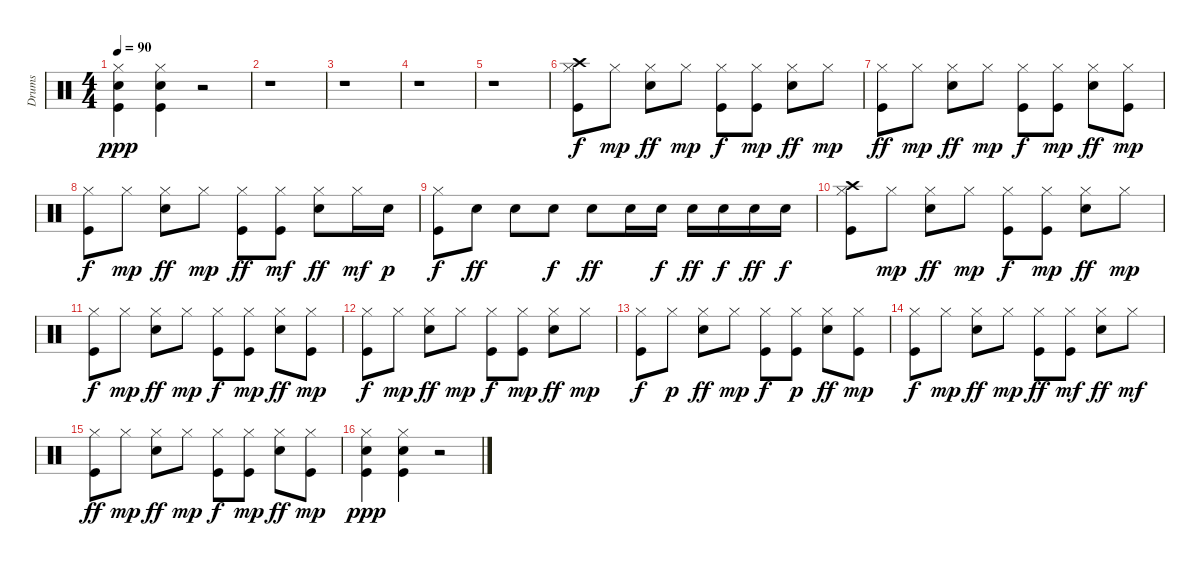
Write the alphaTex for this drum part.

\track ("Drums" "Drums") {instrument percussion}
\staff {score}
\articulation defaults
\ts (4 4)
\tempo 90
\clef neutral
\ks c
("Kick (hit)" "Snare (hit) 2" "Hi-Hat (closed)").4{dy ppp} ("Kick (hit)" "Snare (hit) 2" "Hi-Hat (closed)").4 r.2 |
r.1 |
r.1 |
r.1 |
r.1 |
("Kick (hit)" "Hi-Hat (closed)" "Crash high (hit)").8{dy f} "Hi-Hat (closed)".8{dy mp} ("Snare (hit) 2" "Hi-Hat (closed)").8{dy ff} "Hi-Hat (closed)".8{dy mp} ("Kick (hit)" "Hi-Hat (closed)").8{dy f} ("Kick (hit)" "Hi-Hat (closed)").8{dy mp} ("Snare (hit) 2" "Hi-Hat (closed)").8{dy ff} "Hi-Hat (closed)".8{dy mp} |
("Kick (hit)" "Hi-Hat (closed)").8{dy ff} "Hi-Hat (closed)".8{dy mp} ("Snare (hit) 2" "Hi-Hat (closed)").8{dy ff} "Hi-Hat (closed)".8{dy mp} ("Kick (hit)" "Hi-Hat (closed)").8{dy f} ("Kick (hit)" "Hi-Hat (closed)").8{dy mp} ("Snare (hit) 2" "Hi-Hat (closed)").8{dy ff} ("Kick (hit)" "Hi-Hat (closed)").8{dy mp} |
("Kick (hit)" "Hi-Hat (closed)").8{dy f} "Hi-Hat (closed)".8{dy mp} ("Snare (hit) 2" "Hi-Hat (closed)").8{dy ff} "Hi-Hat (closed)".8{dy mp} ("Kick (hit)" "Hi-Hat (closed)").8{dy ff} ("Kick (hit)" "Hi-Hat (closed)").8{dy mf} ("Snare (hit) 2" "Hi-Hat (closed)").8{dy ff} "Hi-Hat (closed)".16{dy mf} "Snare (hit) 2".16{dy p} |
("Kick (hit)" "Hi-Hat (closed)").8{dy f} "Snare (hit) 2".8{dy ff} "Snare (hit) 2".8 "Snare (hit) 2".8{dy f} "Snare (hit) 2".8{dy ff} "Snare (hit) 2".16 "Snare (hit) 2".16{dy f} "Snare (hit) 2".16{dy ff} "Snare (hit) 2".16{dy f} "Snare (hit) 2".16{dy ff} "Snare (hit) 2".16{dy f} |
("Kick (hit)" "Hi-Hat (closed)" "Crash high (hit)").8 "Hi-Hat (closed)".8{dy mp} ("Snare (hit) 2" "Hi-Hat (closed)").8{dy ff} "Hi-Hat (closed)".8{dy mp} ("Kick (hit)" "Hi-Hat (closed)").8{dy f} ("Kick (hit)" "Hi-Hat (closed)").8{dy mp} ("Snare (hit) 2" "Hi-Hat (closed)").8{dy ff} "Hi-Hat (closed)".8{dy mp} |
("Kick (hit)" "Hi-Hat (closed)").8{dy f} "Hi-Hat (closed)".8{dy mp} ("Snare (hit) 2" "Hi-Hat (closed)").8{dy ff} "Hi-Hat (closed)".8{dy mp} ("Kick (hit)" "Hi-Hat (closed)").8{dy f} ("Kick (hit)" "Hi-Hat (closed)").8{dy mp} ("Snare (hit) 2" "Hi-Hat (closed)").8{dy ff} ("Kick (hit)" "Hi-Hat (closed)").8{dy mp} |
("Kick (hit)" "Hi-Hat (closed)").8{dy f} "Hi-Hat (closed)".8{dy mp} ("Snare (hit) 2" "Hi-Hat (closed)").8{dy ff} "Hi-Hat (closed)".8{dy mp} ("Kick (hit)" "Hi-Hat (closed)").8{dy f} ("Kick (hit)" "Hi-Hat (closed)").8{dy mp} ("Snare (hit) 2" "Hi-Hat (closed)").8{dy ff} "Hi-Hat (closed)".8{dy mp} |
("Kick (hit)" "Hi-Hat (closed)").8{dy f} "Hi-Hat (closed)".8{dy p} ("Snare (hit) 2" "Hi-Hat (closed)").8{dy ff} "Hi-Hat (closed)".8{dy mp} ("Kick (hit)" "Hi-Hat (closed)").8{dy f} ("Kick (hit)" "Hi-Hat (closed)").8{dy p} ("Snare (hit) 2" "Hi-Hat (closed)").8{dy ff} ("Kick (hit)" "Hi-Hat (closed)").8{dy mp} |
("Kick (hit)" "Hi-Hat (closed)").8{dy f} "Hi-Hat (closed)".8{dy mp} ("Snare (hit) 2" "Hi-Hat (closed)").8{dy ff} "Hi-Hat (closed)".8{dy mp} ("Kick (hit)" "Hi-Hat (closed)").8{dy ff} ("Kick (hit)" "Hi-Hat (closed)").8{dy mf} ("Snare (hit) 2" "Hi-Hat (closed)").8{dy ff} "Hi-Hat (closed)".8{dy mf} |
("Kick (hit)" "Hi-Hat (closed)").8{dy ff} "Hi-Hat (closed)".8{dy mp} ("Snare (hit) 2" "Hi-Hat (closed)").8{dy ff} "Hi-Hat (closed)".8{dy mp} ("Kick (hit)" "Hi-Hat (closed)").8{dy f} ("Kick (hit)" "Hi-Hat (closed)").8{dy mp} ("Snare (hit) 2" "Hi-Hat (closed)").8{dy ff} ("Kick (hit)" "Hi-Hat (closed)").8{dy mp} |
("Kick (hit)" "Snare (hit) 2" "Hi-Hat (closed)").4{dy ppp} ("Kick (hit)" "Snare (hit) 2" "Hi-Hat (closed)").4 r.2
